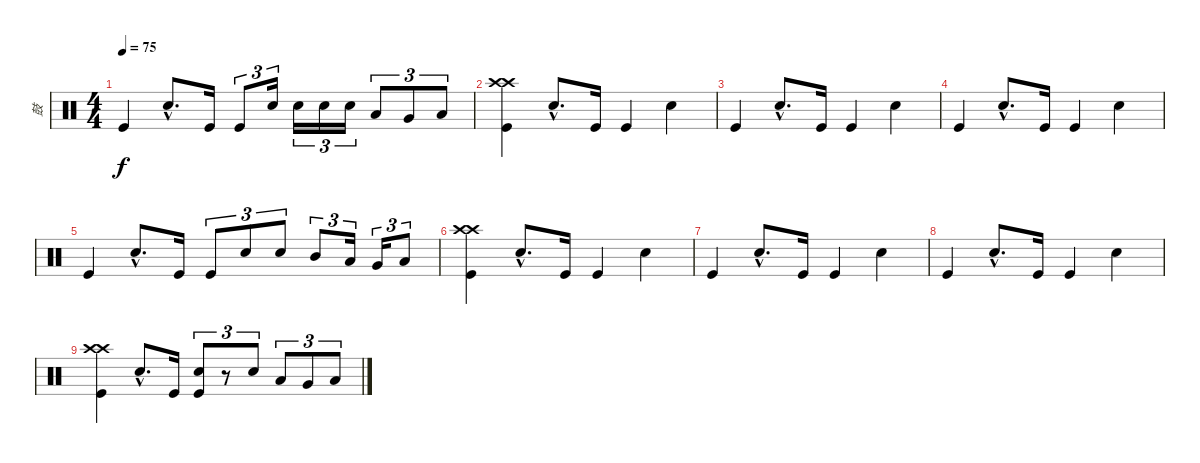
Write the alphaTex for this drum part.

\track ("鼓" "鼓") {instrument percussion}
\staff {score}
\articulation defaults
\ts (4 4)
\tempo 75
\clef neutral
\ks c "Kick (hit)".4{dy f} "Snare (hit) 2"{hac}.8{d} "Kick (hit)".16 "Kick (hit)".8{tu (3 2)} "Snare (hit) 2".16{tu (3 2)} "Snare (hit) 2".16{tu (3 2)} "Snare (hit) 2".16{tu (3 2)} "Snare (hit) 2".16{tu (3 2)} "Low Tom (hit)".8{tu (3 2)} "Very Low Tom (hit)".8{tu (3 2)} "Low Floor Tom (hit)".8{tu (3 2)}
|
("Crash high (hit)" "Crash high (hit)" "Kick (hit)").4 "Snare (hit) 2"{hac}.8{d} "Kick (hit)".16 "Kick (hit)".4 "Snare (hit) 2".4 |
"Kick (hit)".4 "Snare (hit) 2"{hac}.8{d} "Kick (hit)".16 "Kick (hit)".4 "Snare (hit) 2".4 |
"Kick (hit)".4 "Snare (hit) 2"{hac}.8{d} "Kick (hit)".16 "Kick (hit)".4 "Snare (hit) 2".4 |
"Kick (hit)".4 "Snare (hit) 2"{hac}.8{d} "Kick (hit)".16 "Kick (hit)".8{tu (3 2)} "Snare (hit) 2".8{tu (3 2)} "Snare (hit) 2".8{tu (3 2)} "Mid Tom (hit)".8{tu (3 2)} "Low Tom (hit)".16{tu (3 2)} "Very Low Tom (hit)".16{tu (3 2)} "Low Floor Tom (hit)".8{tu (3 2)} |
("Crash high (hit)" "Crash high (hit)" "Kick (hit)").4 "Snare (hit) 2"{hac}.8{d} "Kick (hit)".16 "Kick (hit)".4 "Snare (hit) 2".4 |
"Kick (hit)".4 "Snare (hit) 2"{hac}.8{d} "Kick (hit)".16 "Kick (hit)".4 "Snare (hit) 2".4 |
"Kick (hit)".4 "Snare (hit) 2"{hac}.8{d} "Kick (hit)".16 "Kick (hit)".4 "Snare (hit) 2".4 |
("Crash high (hit)" "Crash high (hit)" "Kick (hit)").4 "Snare (hit) 2"{hac}.8{d} "Kick (hit)".16 ("Snare (hit) 2" "Kick (hit)").8{tu (3 2)} r.8{tu (3 2)} "Snare (hit) 2".8{tu (3 2)} "Low Tom (hit)".8{tu (3 2)} "Very Low Tom (hit)".8{tu (3 2)} "Low Floor Tom (hit)".8{tu (3 2)}
